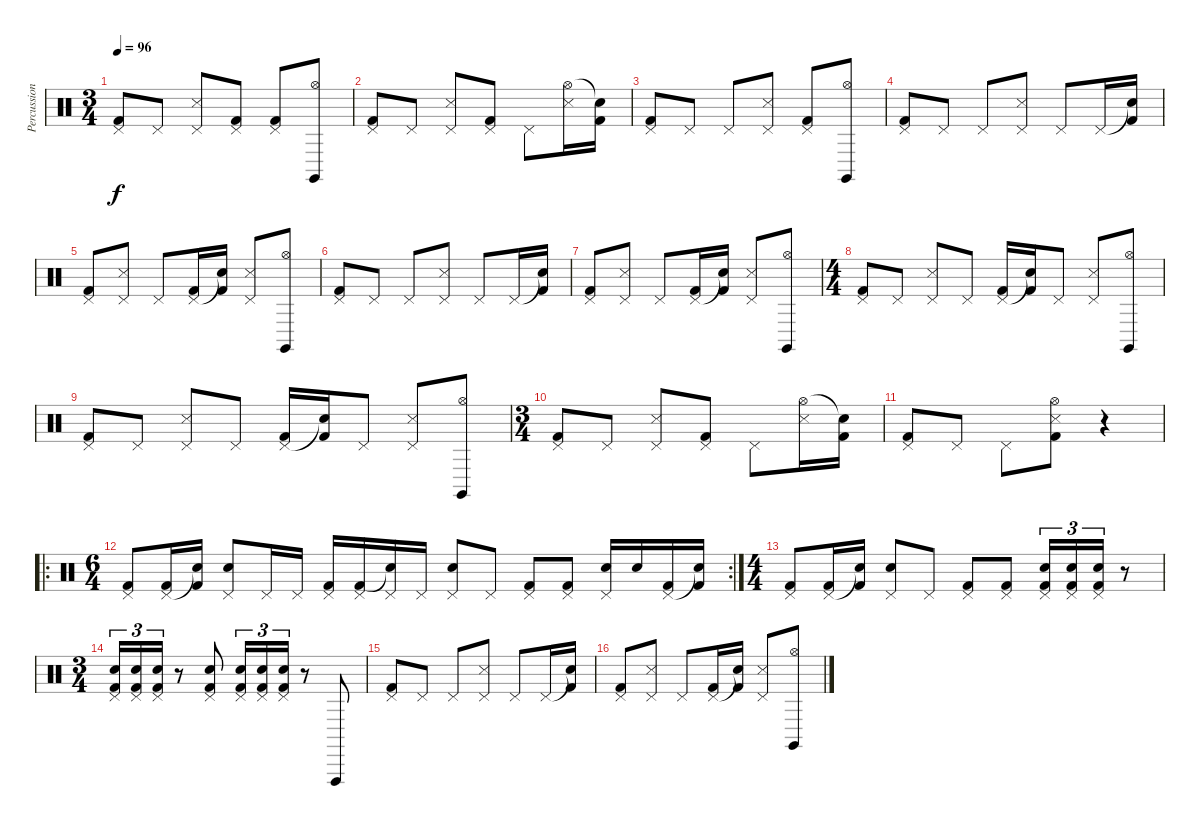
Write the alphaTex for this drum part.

\track ("Percussion" "Percussion") {instrument percussion}
\staff {score}
\articulation defaults
\ts (3 4)
\tempo 96
\clef neutral
\ks c
("Pedal Hi-Hat (hit)" "Kick (hit) 2").8{dy f} "Pedal Hi-Hat (hit)".8 ("Pedal Hi-Hat (hit)" "Snare (side stick) 3").8 ("Pedal Hi-Hat (hit)" "Kick (hit) 2").8 ("Pedal Hi-Hat (hit)" "Kick (hit) 2").8 ("Hi-Hat (open)" "Claves (hit)").8 |
("Pedal Hi-Hat (hit)" "Kick (hit) 2").8 "Pedal Hi-Hat (hit)".8 ("Pedal Hi-Hat (hit)" "Snare (side stick) 3").8 ("Pedal Hi-Hat (hit)" "Kick (hit) 2").8 "Pedal Hi-Hat (hit)".8 ("Hi-Hat (open)" "Snare (side stick) 3").16 ("Snare (hit)"{t} "Kick (hit) 2").16 |
("Pedal Hi-Hat (hit)" "Kick (hit) 2").8 "Pedal Hi-Hat (hit)".8 "Pedal Hi-Hat (hit)".8 ("Pedal Hi-Hat (hit)" "Snare (side stick) 3").8 ("Pedal Hi-Hat (hit)" "Kick (hit) 2").8 ("Hi-Hat (open)" "Claves (hit)").8 |
("Pedal Hi-Hat (hit)" "Kick (hit) 2").8 "Pedal Hi-Hat (hit)".8 "Pedal Hi-Hat (hit)".8 ("Pedal Hi-Hat (hit)" "Snare (side stick) 3").8 "Pedal Hi-Hat (hit)".8 "Pedal Hi-Hat (hit)".16 ("Snare (hit)"{t} "Kick (hit) 2").16 |
("Pedal Hi-Hat (hit)" "Kick (hit) 2").8 ("Pedal Hi-Hat (hit)" "Snare (side stick) 3").8 "Pedal Hi-Hat (hit)".8 ("Pedal Hi-Hat (hit)" "Kick (hit) 2").16 ("Snare (hit)"{t} "Kick (hit) 2").16 ("Pedal Hi-Hat (hit)" "Snare (side stick) 3").8 ("Hi-Hat (open)" "Claves (hit)").8 |
("Pedal Hi-Hat (hit)" "Kick (hit) 2").8 "Pedal Hi-Hat (hit)".8 "Pedal Hi-Hat (hit)".8 ("Pedal Hi-Hat (hit)" "Snare (side stick) 3").8 "Pedal Hi-Hat (hit)".8 "Pedal Hi-Hat (hit)".16 ("Snare (hit)"{t} "Kick (hit) 2").16 |
("Pedal Hi-Hat (hit)" "Kick (hit) 2").8 ("Pedal Hi-Hat (hit)" "Snare (side stick) 3").8 "Pedal Hi-Hat (hit)".8 ("Pedal Hi-Hat (hit)" "Kick (hit) 2").16 ("Snare (hit)"{t} "Kick (hit) 2").16 ("Pedal Hi-Hat (hit)" "Snare (side stick) 3").8 ("Hi-Hat (open)" "Claves (hit)").8 |
\ts (4 4)
("Pedal Hi-Hat (hit)" "Kick (hit) 2").8 "Pedal Hi-Hat (hit)".8 ("Pedal Hi-Hat (hit)" "Snare (side stick) 3").8 "Pedal Hi-Hat (hit)".8 ("Pedal Hi-Hat (hit)" "Kick (hit) 2").16 ("Snare (hit)"{t} "Kick (hit) 2").16 "Pedal Hi-Hat (hit)".8 ("Pedal Hi-Hat (hit)" "Snare (side stick) 3").8 ("Hi-Hat (open)" "Claves (hit)").8 |
("Pedal Hi-Hat (hit)" "Kick (hit) 2").8 "Pedal Hi-Hat (hit)".8 ("Pedal Hi-Hat (hit)" "Snare (side stick) 3").8 "Pedal Hi-Hat (hit)".8 ("Pedal Hi-Hat (hit)" "Kick (hit) 2").16 ("Snare (hit)"{t} "Kick (hit) 2").16 "Pedal Hi-Hat (hit)".8 ("Pedal Hi-Hat (hit)" "Snare (side stick) 3").8 ("Hi-Hat (open)" "Claves (hit)").8 |
\ts (3 4)
("Pedal Hi-Hat (hit)" "Kick (hit) 2").8 "Pedal Hi-Hat (hit)".8 ("Pedal Hi-Hat (hit)" "Snare (side stick) 3").8 ("Pedal Hi-Hat (hit)" "Kick (hit) 2").8 "Pedal Hi-Hat (hit)".8 ("Hi-Hat (open)" "Snare (side stick) 3").16 ("Snare (hit)"{t} "Kick (hit) 2").16 |
("Pedal Hi-Hat (hit)" "Kick (hit) 2").8 "Pedal Hi-Hat (hit)".8 "Pedal Hi-Hat (hit)".8 ("Hi-Hat (open)" "Snare (side stick) 3" "Kick (hit) 2").8 r.4 |
\ro
\rc 2
\ts (6 4)
("Pedal Hi-Hat (hit)" "Kick (hit) 2").8 ("Pedal Hi-Hat (hit)" "Kick (hit) 2").16 ("Snare (hit)"{t} "Kick (hit) 2").16 ("Pedal Hi-Hat (hit)" "Snare (hit) 2").8 "Pedal Hi-Hat (hit)".16 "Pedal Hi-Hat (hit)".16 ("Pedal Hi-Hat (hit)" "Kick (hit) 2").16 ("Pedal Hi-Hat (hit)" "Kick (hit) 2").16 ("Pedal Hi-Hat (hit)" "Snare (hit)"{t}).16 "Pedal Hi-Hat (hit)".16 ("Pedal Hi-Hat (hit)" "Snare (hit) 2").8 "Pedal Hi-Hat (hit)".8 ("Pedal Hi-Hat (hit)" "Kick (hit) 2").8 ("Pedal Hi-Hat (hit)" "Kick (hit) 2").8 ("Pedal Hi-Hat (hit)" "Snare (hit) 2").16 "Snare (hit) 2".16 ("Pedal Hi-Hat (hit)" "Kick (hit) 2").16 ("Snare (hit)"{t} "Kick (hit) 2").16 |
\ts (4 4)
("Pedal Hi-Hat (hit)" "Kick (hit) 2").8 ("Pedal Hi-Hat (hit)" "Kick (hit) 2").16 ("Snare (hit)"{t} "Kick (hit) 2").16 ("Pedal Hi-Hat (hit)" "Snare (hit) 2").8 "Pedal Hi-Hat (hit)".8 ("Pedal Hi-Hat (hit)" "Kick (hit) 2").8 ("Pedal Hi-Hat (hit)" "Kick (hit) 2").8 ("Pedal Hi-Hat (hit)" "Snare (hit) 2" "Kick (hit) 2").16{tu (3 2)} ("Pedal Hi-Hat (hit)" "Snare (hit) 2" "Kick (hit) 2").16{tu (3 2)} ("Pedal Hi-Hat (hit)" "Snare (hit) 2" "Kick (hit) 2").16{tu (3 2)} r.8 |
\ts (3 4)
("Pedal Hi-Hat (hit)" "Snare (hit) 2" "Kick (hit) 2").16{tu (3 2)} ("Pedal Hi-Hat (hit)" "Snare (hit) 2" "Kick (hit) 2").16{tu (3 2)} ("Pedal Hi-Hat (hit)" "Snare (hit) 2" "Kick (hit) 2").16{tu (3 2)} r.8 ("Pedal Hi-Hat (hit)" "Snare (hit) 2" "Kick (hit) 2").8 ("Pedal Hi-Hat (hit)" "Snare (hit) 2" "Kick (hit) 2").16{tu (3 2)} ("Pedal Hi-Hat (hit)" "Snare (hit) 2" "Kick (hit) 2").16{tu (3 2)} ("Pedal Hi-Hat (hit)" "Snare (hit) 2" "Kick (hit) 2").16{tu (3 2)} r.8 "Vibraslap (hit)".8 |
("Pedal Hi-Hat (hit)" "Kick (hit) 2").8 "Pedal Hi-Hat (hit)".8 "Pedal Hi-Hat (hit)".8 ("Pedal Hi-Hat (hit)" "Snare (side stick) 3").8 "Pedal Hi-Hat (hit)".8 "Pedal Hi-Hat (hit)".16 ("Snare (hit)"{t} "Kick (hit) 2").16 |
("Pedal Hi-Hat (hit)" "Kick (hit) 2").8 ("Pedal Hi-Hat (hit)" "Snare (side stick) 3").8 "Pedal Hi-Hat (hit)".8 ("Pedal Hi-Hat (hit)" "Kick (hit) 2").16 ("Snare (hit)"{t} "Kick (hit) 2").16 ("Pedal Hi-Hat (hit)" "Snare (side stick) 3").8 ("Hi-Hat (open)" "Claves (hit)").8
